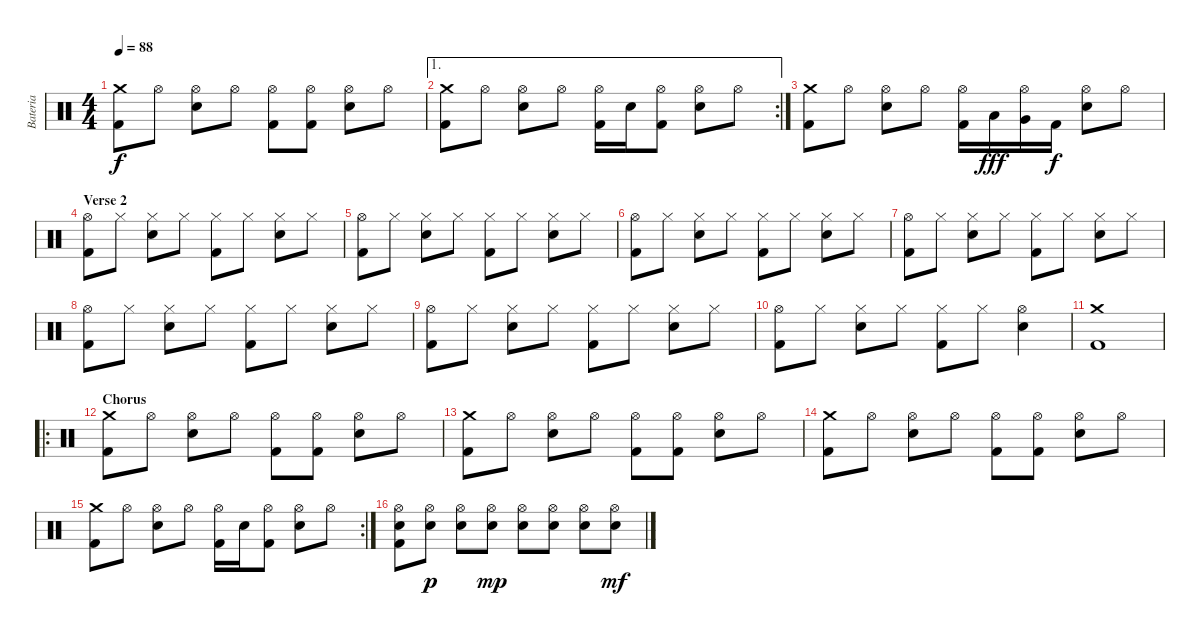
\track ("Bateria" "Bateria") {instrument percussion}
\staff {score}
\articulation defaults
\ts (4 4)
\tempo 88
\clef neutral
\ks c
("Crash medium (hit)" "Kick (hit) 2").8{dy f} "Hi-Hat (open)".8 ("Hi-Hat (open)" "Electric Snare (hit)").8 "Hi-Hat (open)".8 ("Hi-Hat (open)" "Kick (hit) 2").8 ("Hi-Hat (open)" "Kick (hit) 2").8 ("Hi-Hat (open)" "Electric Snare (hit)").8 "Hi-Hat (open)".8 |
\ae 1
\rc 2
("Crash medium (hit)" "Kick (hit) 2").8 "Hi-Hat (open)".8 ("Hi-Hat (open)" "Electric Snare (hit)").8 "Hi-Hat (open)".8 ("Hi-Hat (open)" "Kick (hit) 2").16 "Electric Snare (hit)".16 ("Hi-Hat (open)" "Kick (hit) 2").8 ("Hi-Hat (open)" "Electric Snare (hit)").8 "Hi-Hat (open)".8 |
("Crash medium (hit)" "Kick (hit) 2").8 "Hi-Hat (open)".8 ("Hi-Hat (open)" "Electric Snare (hit)").8 "Hi-Hat (open)".8 ("Hi-Hat (open)" "Kick (hit) 2").16 "Low Tom (hit)".16{dy fff} ("Hi-Hat (open)" "Very Low Tom (hit)").16 "Kick (hit) 2".16{dy f} ("Hi-Hat (open)" "Electric Snare (hit)").8 "Hi-Hat (open)".8 |
\section ("" "Verse 2")
("Hi-Hat (open)" "Kick (hit) 2").8 "Hi-Hat (closed)".8 ("Hi-Hat (closed)" "Electric Snare (hit)").8 "Hi-Hat (closed)".8 ("Hi-Hat (closed)" "Kick (hit) 2").8 "Hi-Hat (closed)".8 ("Hi-Hat (closed)" "Electric Snare (hit)").8 "Hi-Hat (closed)".8 |
("Hi-Hat (open)" "Kick (hit) 2").8 "Hi-Hat (closed)".8 ("Hi-Hat (closed)" "Electric Snare (hit)").8 "Hi-Hat (closed)".8 ("Hi-Hat (closed)" "Kick (hit) 2").8 "Hi-Hat (closed)".8 ("Hi-Hat (closed)" "Electric Snare (hit)").8 "Hi-Hat (closed)".8 |
("Hi-Hat (open)" "Kick (hit) 2").8 "Hi-Hat (closed)".8 ("Hi-Hat (closed)" "Electric Snare (hit)").8 "Hi-Hat (closed)".8 ("Hi-Hat (closed)" "Kick (hit) 2").8 "Hi-Hat (closed)".8 ("Hi-Hat (closed)" "Electric Snare (hit)").8 "Hi-Hat (closed)".8 |
("Hi-Hat (open)" "Kick (hit) 2").8 "Hi-Hat (closed)".8 ("Hi-Hat (closed)" "Electric Snare (hit)").8 "Hi-Hat (closed)".8 ("Hi-Hat (closed)" "Kick (hit) 2").8 "Hi-Hat (closed)".8 ("Hi-Hat (closed)" "Electric Snare (hit)").8 "Hi-Hat (closed)".8 |
("Hi-Hat (open)" "Kick (hit) 2").8 "Hi-Hat (closed)".8 ("Hi-Hat (closed)" "Electric Snare (hit)").8 "Hi-Hat (closed)".8 ("Hi-Hat (closed)" "Kick (hit) 2").8 "Hi-Hat (closed)".8 ("Hi-Hat (closed)" "Electric Snare (hit)").8 "Hi-Hat (closed)".8 |
("Hi-Hat (open)" "Kick (hit) 2").8 "Hi-Hat (closed)".8 ("Hi-Hat (closed)" "Electric Snare (hit)").8 "Hi-Hat (closed)".8 ("Hi-Hat (closed)" "Kick (hit) 2").8 "Hi-Hat (closed)".8 ("Hi-Hat (closed)" "Electric Snare (hit)").8 "Hi-Hat (closed)".8 |
("Hi-Hat (open)" "Kick (hit) 2").8 "Hi-Hat (closed)".8 ("Hi-Hat (closed)" "Electric Snare (hit)").8 "Hi-Hat (closed)".8 ("Hi-Hat (closed)" "Kick (hit) 2").8 "Hi-Hat (closed)".8 ("Hi-Hat (open)" "Electric Snare (hit)").4 |
("Crash medium (hit)" "Kick (hit) 2").1 |
\ro
\section ("" "Chorus")
("Crash medium (hit)" "Kick (hit) 2").8 "Hi-Hat (open)".8 ("Hi-Hat (open)" "Electric Snare (hit)").8 "Hi-Hat (open)".8 ("Hi-Hat (open)" "Kick (hit) 2").8 ("Hi-Hat (open)" "Kick (hit) 2").8 ("Hi-Hat (open)" "Electric Snare (hit)").8 "Hi-Hat (open)".8 |
("Crash medium (hit)" "Kick (hit) 2").8 "Hi-Hat (open)".8 ("Hi-Hat (open)" "Electric Snare (hit)").8 "Hi-Hat (open)".8 ("Hi-Hat (open)" "Kick (hit) 2").8 ("Hi-Hat (open)" "Kick (hit) 2").8 ("Hi-Hat (open)" "Electric Snare (hit)").8 "Hi-Hat (open)".8 |
("Crash medium (hit)" "Kick (hit) 2").8 "Hi-Hat (open)".8 ("Hi-Hat (open)" "Electric Snare (hit)").8 "Hi-Hat (open)".8 ("Hi-Hat (open)" "Kick (hit) 2").8 ("Hi-Hat (open)" "Kick (hit) 2").8 ("Hi-Hat (open)" "Electric Snare (hit)").8 "Hi-Hat (open)".8 |
\rc 2
("Crash medium (hit)" "Kick (hit) 2").8 "Hi-Hat (open)".8 ("Hi-Hat (open)" "Electric Snare (hit)").8 "Hi-Hat (open)".8 ("Hi-Hat (open)" "Kick (hit) 2").16 "Electric Snare (hit)".16 ("Hi-Hat (open)" "Kick (hit) 2").8 ("Hi-Hat (open)" "Electric Snare (hit)").8 "Hi-Hat (open)".8 |
("Hi-Hat (open)" "Electric Snare (hit)" "Kick (hit) 2").8 ("Hi-Hat (open)" "Electric Snare (hit)").8{dy p} ("Hi-Hat (open)" "Electric Snare (hit)").8 ("Hi-Hat (open)" "Electric Snare (hit)").8{dy mp} ("Hi-Hat (open)" "Electric Snare (hit)").8 ("Hi-Hat (open)" "Electric Snare (hit)").8 ("Hi-Hat (open)" "Electric Snare (hit)").8 ("Hi-Hat (open)" "Electric Snare (hit)").8{dy mf}
